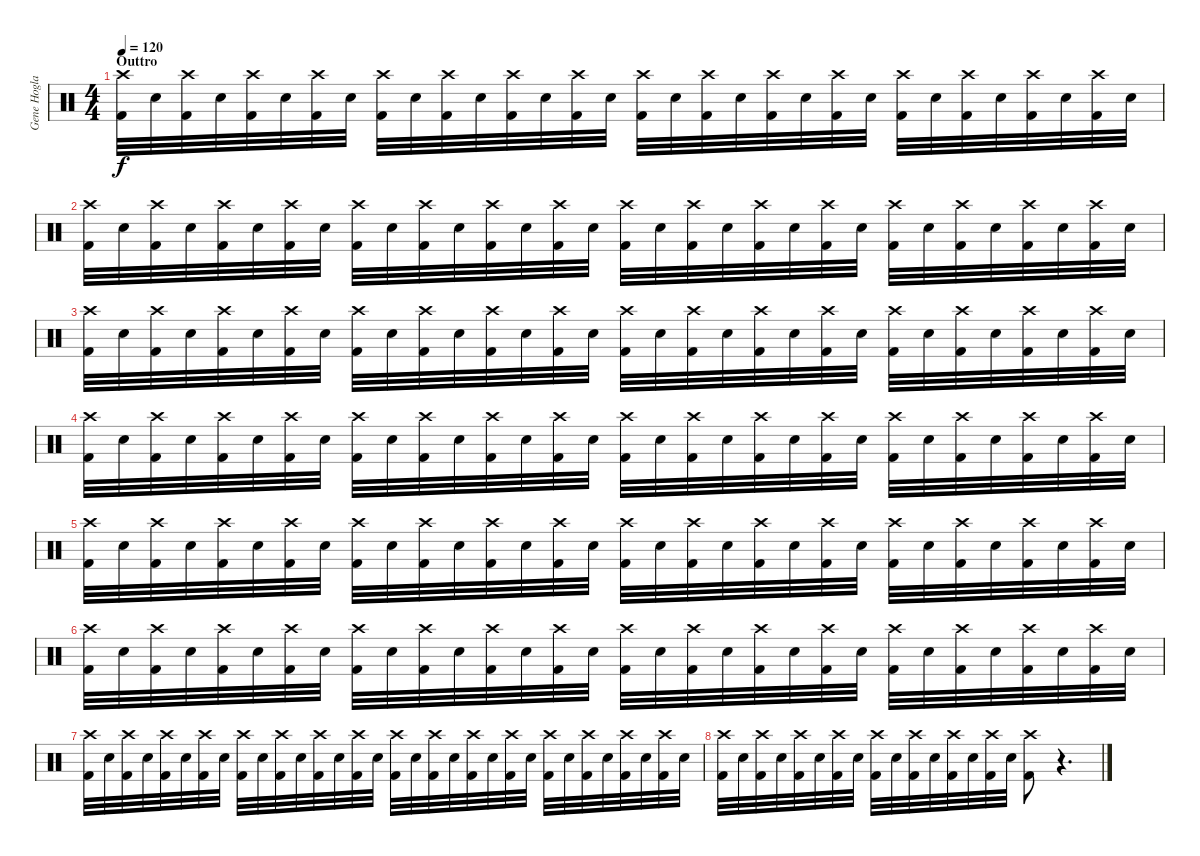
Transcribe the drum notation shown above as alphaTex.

\track ("Gene Hogland" "Gene Hogla") {instrument percussion}
\staff {score}
\articulation defaults
\ts (4 4)
\section ("" "Outtro")
\tempo 120
\clef neutral
\ks c
("Crash high (hit)" "Kick (hit) 2").32{dy f} "Electric Snare (hit)".32 ("Crash high (hit)" "Kick (hit) 2").32 "Electric Snare (hit)".32 ("Crash high (hit)" "Kick (hit) 2").32 "Electric Snare (hit)".32 ("Crash high (hit)" "Kick (hit) 2").32 "Electric Snare (hit)".32 ("Crash high (hit)" "Kick (hit) 2").32 "Electric Snare (hit)".32 ("Crash high (hit)" "Kick (hit) 2").32 "Electric Snare (hit)".32 ("Crash high (hit)" "Kick (hit) 2").32 "Electric Snare (hit)".32 ("Crash high (hit)" "Kick (hit) 2").32 "Electric Snare (hit)".32 ("Crash high (hit)" "Kick (hit) 2").32 "Electric Snare (hit)".32 ("Crash high (hit)" "Kick (hit) 2").32 "Electric Snare (hit)".32 ("Crash high (hit)" "Kick (hit) 2").32 "Electric Snare (hit)".32 ("Crash high (hit)" "Kick (hit) 2").32 "Electric Snare (hit)".32 ("Crash high (hit)" "Kick (hit) 2").32 "Electric Snare (hit)".32 ("Crash high (hit)" "Kick (hit) 2").32 "Electric Snare (hit)".32 ("Crash high (hit)" "Kick (hit) 2").32 "Electric Snare (hit)".32 ("Crash high (hit)" "Kick (hit) 2").32 "Electric Snare (hit)".32 |
("Crash high (hit)" "Kick (hit) 2").32 "Electric Snare (hit)".32 ("Crash high (hit)" "Kick (hit) 2").32 "Electric Snare (hit)".32 ("Crash high (hit)" "Kick (hit) 2").32 "Electric Snare (hit)".32 ("Crash high (hit)" "Kick (hit) 2").32 "Electric Snare (hit)".32 ("Crash high (hit)" "Kick (hit) 2").32 "Electric Snare (hit)".32 ("Crash high (hit)" "Kick (hit) 2").32 "Electric Snare (hit)".32 ("Crash high (hit)" "Kick (hit) 2").32 "Electric Snare (hit)".32 ("Crash high (hit)" "Kick (hit) 2").32 "Electric Snare (hit)".32 ("Crash high (hit)" "Kick (hit) 2").32 "Electric Snare (hit)".32 ("Crash high (hit)" "Kick (hit) 2").32 "Electric Snare (hit)".32 ("Crash high (hit)" "Kick (hit) 2").32 "Electric Snare (hit)".32 ("Crash high (hit)" "Kick (hit) 2").32 "Electric Snare (hit)".32 ("Crash high (hit)" "Kick (hit) 2").32 "Electric Snare (hit)".32 ("Crash high (hit)" "Kick (hit) 2").32 "Electric Snare (hit)".32 ("Crash high (hit)" "Kick (hit) 2").32 "Electric Snare (hit)".32 ("Crash high (hit)" "Kick (hit) 2").32 "Electric Snare (hit)".32 |
("Crash high (hit)" "Kick (hit) 2").32 "Electric Snare (hit)".32 ("Crash high (hit)" "Kick (hit) 2").32 "Electric Snare (hit)".32 ("Crash high (hit)" "Kick (hit) 2").32 "Electric Snare (hit)".32 ("Crash high (hit)" "Kick (hit) 2").32 "Electric Snare (hit)".32 ("Crash high (hit)" "Kick (hit) 2").32 "Electric Snare (hit)".32 ("Crash high (hit)" "Kick (hit) 2").32 "Electric Snare (hit)".32 ("Crash high (hit)" "Kick (hit) 2").32 "Electric Snare (hit)".32 ("Crash high (hit)" "Kick (hit) 2").32 "Electric Snare (hit)".32 ("Crash high (hit)" "Kick (hit) 2").32 "Electric Snare (hit)".32 ("Crash high (hit)" "Kick (hit) 2").32 "Electric Snare (hit)".32 ("Crash high (hit)" "Kick (hit) 2").32 "Electric Snare (hit)".32 ("Crash high (hit)" "Kick (hit) 2").32 "Electric Snare (hit)".32 ("Crash high (hit)" "Kick (hit) 2").32 "Electric Snare (hit)".32 ("Crash high (hit)" "Kick (hit) 2").32 "Electric Snare (hit)".32 ("Crash high (hit)" "Kick (hit) 2").32 "Electric Snare (hit)".32 ("Crash high (hit)" "Kick (hit) 2").32 "Electric Snare (hit)".32 |
("Crash high (hit)" "Kick (hit) 2").32 "Electric Snare (hit)".32 ("Crash high (hit)" "Kick (hit) 2").32 "Electric Snare (hit)".32 ("Crash high (hit)" "Kick (hit) 2").32 "Electric Snare (hit)".32 ("Crash high (hit)" "Kick (hit) 2").32 "Electric Snare (hit)".32 ("Crash high (hit)" "Kick (hit) 2").32 "Electric Snare (hit)".32 ("Crash high (hit)" "Kick (hit) 2").32 "Electric Snare (hit)".32 ("Crash high (hit)" "Kick (hit) 2").32 "Electric Snare (hit)".32 ("Crash high (hit)" "Kick (hit) 2").32 "Electric Snare (hit)".32 ("Crash high (hit)" "Kick (hit) 2").32 "Electric Snare (hit)".32 ("Crash high (hit)" "Kick (hit) 2").32 "Electric Snare (hit)".32 ("Crash high (hit)" "Kick (hit) 2").32 "Electric Snare (hit)".32 ("Crash high (hit)" "Kick (hit) 2").32 "Electric Snare (hit)".32 ("Crash high (hit)" "Kick (hit) 2").32 "Electric Snare (hit)".32 ("Crash high (hit)" "Kick (hit) 2").32 "Electric Snare (hit)".32 ("Crash high (hit)" "Kick (hit) 2").32 "Electric Snare (hit)".32 ("Crash high (hit)" "Kick (hit) 2").32 "Electric Snare (hit)".32 |
("Crash high (hit)" "Kick (hit) 2").32 "Electric Snare (hit)".32 ("Crash high (hit)" "Kick (hit) 2").32 "Electric Snare (hit)".32 ("Crash high (hit)" "Kick (hit) 2").32 "Electric Snare (hit)".32 ("Crash high (hit)" "Kick (hit) 2").32 "Electric Snare (hit)".32 ("Crash high (hit)" "Kick (hit) 2").32 "Electric Snare (hit)".32 ("Crash high (hit)" "Kick (hit) 2").32 "Electric Snare (hit)".32 ("Crash high (hit)" "Kick (hit) 2").32 "Electric Snare (hit)".32 ("Crash high (hit)" "Kick (hit) 2").32 "Electric Snare (hit)".32 ("Crash high (hit)" "Kick (hit) 2").32 "Electric Snare (hit)".32 ("Crash high (hit)" "Kick (hit) 2").32 "Electric Snare (hit)".32 ("Crash high (hit)" "Kick (hit) 2").32 "Electric Snare (hit)".32 ("Crash high (hit)" "Kick (hit) 2").32 "Electric Snare (hit)".32 ("Crash high (hit)" "Kick (hit) 2").32 "Electric Snare (hit)".32 ("Crash high (hit)" "Kick (hit) 2").32 "Electric Snare (hit)".32 ("Crash high (hit)" "Kick (hit) 2").32 "Electric Snare (hit)".32 ("Crash high (hit)" "Kick (hit) 2").32 "Electric Snare (hit)".32 |
("Crash high (hit)" "Kick (hit) 2").32 "Electric Snare (hit)".32 ("Crash high (hit)" "Kick (hit) 2").32 "Electric Snare (hit)".32 ("Crash high (hit)" "Kick (hit) 2").32 "Electric Snare (hit)".32 ("Crash high (hit)" "Kick (hit) 2").32 "Electric Snare (hit)".32 ("Crash high (hit)" "Kick (hit) 2").32 "Electric Snare (hit)".32 ("Crash high (hit)" "Kick (hit) 2").32 "Electric Snare (hit)".32 ("Crash high (hit)" "Kick (hit) 2").32 "Electric Snare (hit)".32 ("Crash high (hit)" "Kick (hit) 2").32 "Electric Snare (hit)".32 ("Crash high (hit)" "Kick (hit) 2").32 "Electric Snare (hit)".32 ("Crash high (hit)" "Kick (hit) 2").32 "Electric Snare (hit)".32 ("Crash high (hit)" "Kick (hit) 2").32 "Electric Snare (hit)".32 ("Crash high (hit)" "Kick (hit) 2").32 "Electric Snare (hit)".32 ("Crash high (hit)" "Kick (hit) 2").32 "Electric Snare (hit)".32 ("Crash high (hit)" "Kick (hit) 2").32 "Electric Snare (hit)".32 ("Crash high (hit)" "Kick (hit) 2").32 "Electric Snare (hit)".32 ("Crash high (hit)" "Kick (hit) 2").32 "Electric Snare (hit)".32 |
("Crash high (hit)" "Kick (hit) 2").32 "Electric Snare (hit)".32 ("Crash high (hit)" "Kick (hit) 2").32 "Electric Snare (hit)".32 ("Crash high (hit)" "Kick (hit) 2").32 "Electric Snare (hit)".32 ("Crash high (hit)" "Kick (hit) 2").32 "Electric Snare (hit)".32 ("Crash high (hit)" "Kick (hit) 2").32 "Electric Snare (hit)".32 ("Crash high (hit)" "Kick (hit) 2").32 "Electric Snare (hit)".32 ("Crash high (hit)" "Kick (hit) 2").32 "Electric Snare (hit)".32 ("Crash high (hit)" "Kick (hit) 2").32 "Electric Snare (hit)".32 ("Crash high (hit)" "Kick (hit) 2").32 "Electric Snare (hit)".32 ("Crash high (hit)" "Kick (hit) 2").32 "Electric Snare (hit)".32 ("Crash high (hit)" "Kick (hit) 2").32 "Electric Snare (hit)".32 ("Crash high (hit)" "Kick (hit) 2").32 "Electric Snare (hit)".32 ("Crash high (hit)" "Kick (hit) 2").32 "Electric Snare (hit)".32 ("Crash high (hit)" "Kick (hit) 2").32 "Electric Snare (hit)".32 ("Crash high (hit)" "Kick (hit) 2").32 "Electric Snare (hit)".32 ("Crash high (hit)" "Kick (hit) 2").32 "Electric Snare (hit)".32 |
("Crash high (hit)" "Kick (hit) 2").32 "Electric Snare (hit)".32 ("Crash high (hit)" "Kick (hit) 2").32 "Electric Snare (hit)".32 ("Crash high (hit)" "Kick (hit) 2").32 "Electric Snare (hit)".32 ("Crash high (hit)" "Kick (hit) 2").32 "Electric Snare (hit)".32 ("Crash high (hit)" "Kick (hit) 2").32 "Electric Snare (hit)".32 ("Crash high (hit)" "Kick (hit) 2").32 "Electric Snare (hit)".32 ("Crash high (hit)" "Kick (hit) 2").32 "Electric Snare (hit)".32 ("Crash high (hit)" "Kick (hit) 2").32 "Electric Snare (hit)".32 ("Crash high (hit)" "Kick (hit) 2").8 r.4{d}
